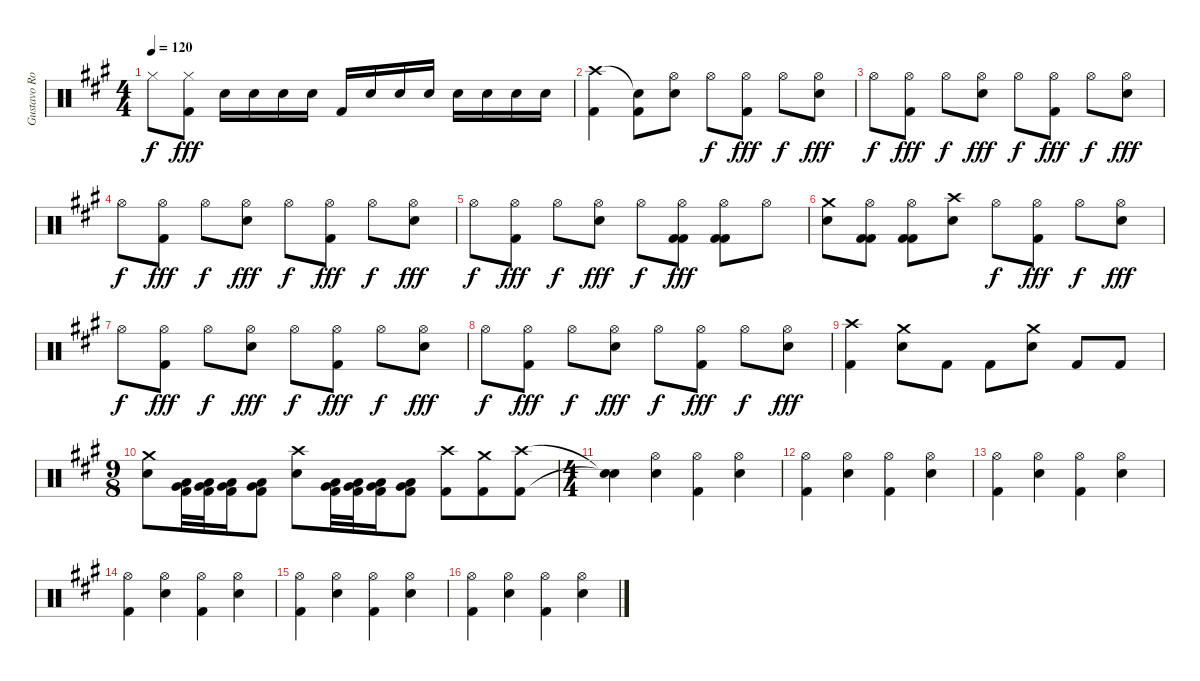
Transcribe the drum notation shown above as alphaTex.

\track ("Gustavo Rowek" "Gustavo Ro") {instrument percussion}
\staff {score}
\articulation defaults
\ts (4 4)
\tempo 120
\clef neutral
\ks a "Hi-Hat (closed)".8{dy f}
("Hi-Hat (closed)" "Kick (hit) 2").8{dy fff} "Snare (hit) 2".16 "Snare (hit) 2".16 "Snare (hit) 2".16 "Snare (hit) 2".16 "Kick (hit) 2".16 "Snare (hit) 2".16 "Snare (hit) 2".16 "Snare (hit) 2".16 "Snare (hit) 2".16 "Snare (hit) 2".16 "Snare (hit) 2".16 "Snare (hit) 2".16 |
("Crash high (hit)" "Kick (hit) 2").4 ("Snare (hit)"{t} "Kick (hit) 2").8 ("Hi-Hat (open)" "Snare (hit) 2").8 "Hi-Hat (open)".8{dy f} ("Hi-Hat (open)" "Kick (hit) 2").8{dy fff} "Hi-Hat (open)".8{dy f} ("Hi-Hat (open)" "Snare (hit) 2").8{dy fff} |
"Hi-Hat (open)".8{dy f} ("Hi-Hat (open)" "Kick (hit) 2").8{dy fff} "Hi-Hat (open)".8{dy f} ("Hi-Hat (open)" "Snare (hit) 2").8{dy fff} "Hi-Hat (open)".8{dy f} ("Hi-Hat (open)" "Kick (hit) 2").8{dy fff} "Hi-Hat (open)".8{dy f} ("Hi-Hat (open)" "Snare (hit) 2").8{dy fff} |
"Hi-Hat (open)".8{dy f} ("Hi-Hat (open)" "Kick (hit) 2").8{dy fff} "Hi-Hat (open)".8{dy f} ("Hi-Hat (open)" "Snare (hit) 2").8{dy fff} "Hi-Hat (open)".8{dy f} ("Hi-Hat (open)" "Kick (hit) 2").8{dy fff} "Hi-Hat (open)".8{dy f} ("Hi-Hat (open)" "Snare (hit) 2").8{dy fff} |
"Hi-Hat (open)".8{dy f} ("Hi-Hat (open)" "Kick (hit) 2").8{dy fff} "Hi-Hat (open)".8{dy f} ("Hi-Hat (open)" "Snare (hit) 2").8{dy fff} "Hi-Hat (open)".8{dy f} ("Hi-Hat (open)" "Kick (hit) 2" "Kick (hit) 2").8{dy fff} ("Hi-Hat (open)" "Kick (hit) 2" "Kick (hit) 2").8 "Hi-Hat (open)".8 |
("Crash medium (hit)" "Snare (hit) 2").8 ("Hi-Hat (open)" "Kick (hit) 2" "Kick (hit) 2").8 ("Hi-Hat (open)" "Kick (hit) 2" "Kick (hit) 2").8 ("Crash high (hit)" "Snare (hit) 2").8 "Hi-Hat (open)".8{dy f} ("Hi-Hat (open)" "Kick (hit) 2").8{dy fff} "Hi-Hat (open)".8{dy f} ("Hi-Hat (open)" "Snare (hit) 2").8{dy fff} |
"Hi-Hat (open)".8{dy f} ("Hi-Hat (open)" "Kick (hit) 2").8{dy fff} "Hi-Hat (open)".8{dy f} ("Hi-Hat (open)" "Snare (hit) 2").8{dy fff} "Hi-Hat (open)".8{dy f} ("Hi-Hat (open)" "Kick (hit) 2").8{dy fff} "Hi-Hat (open)".8{dy f} ("Hi-Hat (open)" "Snare (hit) 2").8{dy fff} |
"Hi-Hat (open)".8{dy f} ("Hi-Hat (open)" "Kick (hit) 2").8{dy fff} "Hi-Hat (open)".8{dy f} ("Hi-Hat (open)" "Snare (hit) 2").8{dy fff} "Hi-Hat (open)".8{dy f} ("Hi-Hat (open)" "Kick (hit) 2").8{dy fff} "Hi-Hat (open)".8{dy f} ("Hi-Hat (open)" "Snare (hit) 2").8{dy fff} |
("Crash high (hit)" "Kick (hit) 2").4 ("Crash medium (hit)" "Snare (hit) 2").8 "Kick (hit) 2".8 "Kick (hit) 2".8 ("Crash medium (hit)" "Snare (hit) 2").8 "Kick (hit) 2".8 "Kick (hit) 2".8 |
\ts (9 8)
("Crash medium (hit)" "Snare (hit) 2").8 ("Low Floor Tom (hit)" "Very Low Tom (hit)" "Kick (hit) 2").32 ("Low Floor Tom (hit)" "Very Low Tom (hit)" "Kick (hit) 2").32 ("Low Floor Tom (hit)" "Very Low Tom (hit)" "Kick (hit) 2").16 ("Low Floor Tom (hit)" "Very Low Tom (hit)" "Kick (hit) 2").8 ("Crash high (hit)" "Snare (hit) 2").8 ("Low Floor Tom (hit)" "Very Low Tom (hit)" "Kick (hit) 2").32 ("Low Floor Tom (hit)" "Very Low Tom (hit)" "Kick (hit) 2").32 ("Low Floor Tom (hit)" "Very Low Tom (hit)" "Kick (hit) 2").16 ("Low Floor Tom (hit)" "Very Low Tom (hit)" "Kick (hit) 2").8 ("Crash high (hit)" "Kick (hit) 2").8 ("Crash medium (hit)" "Kick (hit) 2").8 ("Crash high (hit)" "Kick (hit) 2").8 |
\ts (4 4)
("Snare (hit)"{t} "Snare (hit)"{t}).4 ("Hi-Hat (open)" "Snare (hit) 2").4 ("Hi-Hat (open)" "Kick (hit) 2").4 ("Hi-Hat (open)" "Snare (hit) 2").4 |
("Hi-Hat (open)" "Kick (hit) 2").4 ("Hi-Hat (open)" "Snare (hit) 2").4 ("Hi-Hat (open)" "Kick (hit) 2").4 ("Hi-Hat (open)" "Snare (hit) 2").4 |
("Hi-Hat (open)" "Kick (hit) 2").4 ("Hi-Hat (open)" "Snare (hit) 2").4 ("Hi-Hat (open)" "Kick (hit) 2").4 ("Hi-Hat (open)" "Snare (hit) 2").4 |
("Hi-Hat (open)" "Kick (hit) 2").4 ("Hi-Hat (open)" "Snare (hit) 2").4 ("Hi-Hat (open)" "Kick (hit) 2").4 ("Hi-Hat (open)" "Snare (hit) 2").4 |
("Hi-Hat (open)" "Kick (hit) 2").4 ("Hi-Hat (open)" "Snare (hit) 2").4 ("Hi-Hat (open)" "Kick (hit) 2").4 ("Hi-Hat (open)" "Snare (hit) 2").4 |
("Hi-Hat (open)" "Kick (hit) 2").4 ("Hi-Hat (open)" "Snare (hit) 2").4 ("Hi-Hat (open)" "Kick (hit) 2").4 ("Hi-Hat (open)" "Snare (hit) 2").4
